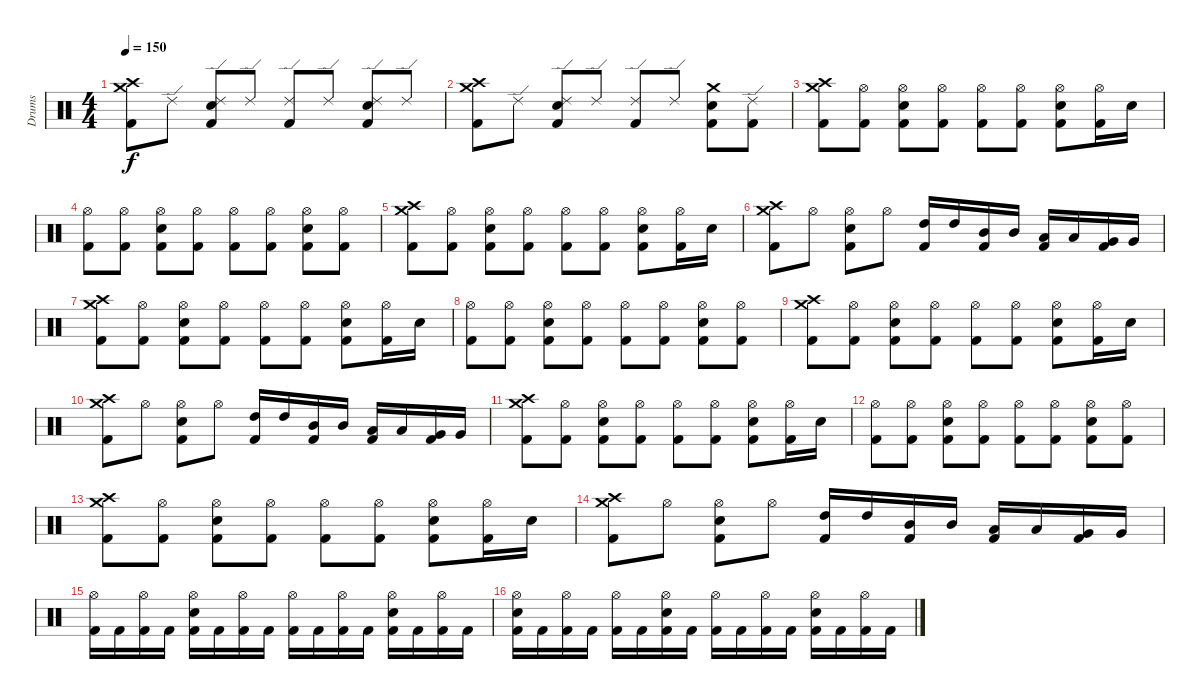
\track ("Drums" "Drums") {instrument percussion}
\staff {score}
\articulation defaults
\ts (4 4)
\tempo 150
\clef neutral
\ks c
("Crash medium (hit)" "Crash high (hit)" "Kick (hit) 2").8{dy f} "Ride (edge) 2".8 ("Ride (edge) 2" "Kick (hit) 2" "Snare (hit) 2").8 "Ride (edge) 2".8 ("Ride (edge) 2" "Kick (hit) 2").8 "Ride (edge) 2".8 ("Ride (edge) 2" "Kick (hit) 2" "Snare (hit) 2").8 "Ride (edge) 2".8 |
("Crash medium (hit)" "Crash high (hit)" "Kick (hit) 2").8 "Ride (edge) 2".8 ("Ride (edge) 2" "Kick (hit) 2" "Snare (hit) 2").8 "Ride (edge) 2".8 ("Ride (edge) 2" "Kick (hit) 2").8 "Ride (edge) 2".8 ("Crash medium (hit)" "Kick (hit) 2" "Snare (hit) 2").8 ("Ride (edge) 2" "Kick (hit) 2").8 |
("Crash medium (hit)" "Crash high (hit)" "Kick (hit) 2").8 ("Hi-Hat (open)" "Kick (hit) 2").8 ("Hi-Hat (open)" "Kick (hit) 2" "Snare (hit) 2").8 ("Hi-Hat (open)" "Kick (hit) 2").8 ("Hi-Hat (open)" "Kick (hit) 2").8 ("Hi-Hat (open)" "Kick (hit) 2").8 ("Hi-Hat (open)" "Kick (hit) 2" "Snare (hit) 2").8 ("Hi-Hat (open)" "Kick (hit) 2").16 "Snare (hit) 2".16 |
("Hi-Hat (open)" "Kick (hit) 2").8 ("Hi-Hat (open)" "Kick (hit) 2").8 ("Hi-Hat (open)" "Kick (hit) 2" "Snare (hit) 2").8 ("Hi-Hat (open)" "Kick (hit) 2").8 ("Hi-Hat (open)" "Kick (hit) 2").8 ("Hi-Hat (open)" "Kick (hit) 2").8 ("Hi-Hat (open)" "Kick (hit) 2" "Snare (hit) 2").8 ("Hi-Hat (open)" "Kick (hit) 2").8 |
("Crash medium (hit)" "Crash high (hit)" "Kick (hit) 2").8 ("Hi-Hat (open)" "Kick (hit) 2").8 ("Hi-Hat (open)" "Kick (hit) 2" "Snare (hit) 2").8 ("Hi-Hat (open)" "Kick (hit) 2").8 ("Hi-Hat (open)" "Kick (hit) 2").8 ("Hi-Hat (open)" "Kick (hit) 2").8 ("Hi-Hat (open)" "Kick (hit) 2" "Snare (hit) 2").8 ("Hi-Hat (open)" "Kick (hit) 2").16 "Snare (hit) 2".16 |
("Crash medium (hit)" "Crash high (hit)" "Kick (hit) 2").8 "Hi-Hat (open)".8 ("Hi-Hat (open)" "Kick (hit) 2" "Snare (hit) 2").8 "Hi-Hat (open)".8 ("High Tom (hit)" "Kick (hit) 2").16 "High Tom (hit)".16 ("Mid Tom (hit)" "Kick (hit) 2").16 "Mid Tom (hit)".16 ("Low Tom (hit)" "Kick (hit) 2").16 "Low Tom (hit)".16 ("Very Low Tom (hit)" "Kick (hit) 2").16 "Very Low Tom (hit)".16 |
("Crash medium (hit)" "Crash high (hit)" "Kick (hit) 2").8 ("Hi-Hat (open)" "Kick (hit) 2").8 ("Hi-Hat (open)" "Kick (hit) 2" "Snare (hit) 2").8 ("Hi-Hat (open)" "Kick (hit) 2").8 ("Hi-Hat (open)" "Kick (hit) 2").8 ("Hi-Hat (open)" "Kick (hit) 2").8 ("Hi-Hat (open)" "Kick (hit) 2" "Snare (hit) 2").8 ("Hi-Hat (open)" "Kick (hit) 2").16 "Snare (hit) 2".16 |
("Hi-Hat (open)" "Kick (hit) 2").8 ("Hi-Hat (open)" "Kick (hit) 2").8 ("Hi-Hat (open)" "Kick (hit) 2" "Snare (hit) 2").8 ("Hi-Hat (open)" "Kick (hit) 2").8 ("Hi-Hat (open)" "Kick (hit) 2").8 ("Hi-Hat (open)" "Kick (hit) 2").8 ("Hi-Hat (open)" "Kick (hit) 2" "Snare (hit) 2").8 ("Hi-Hat (open)" "Kick (hit) 2").8 |
("Crash medium (hit)" "Crash high (hit)" "Kick (hit) 2").8 ("Hi-Hat (open)" "Kick (hit) 2").8 ("Hi-Hat (open)" "Kick (hit) 2" "Snare (hit) 2").8 ("Hi-Hat (open)" "Kick (hit) 2").8 ("Hi-Hat (open)" "Kick (hit) 2").8 ("Hi-Hat (open)" "Kick (hit) 2").8 ("Hi-Hat (open)" "Kick (hit) 2" "Snare (hit) 2").8 ("Hi-Hat (open)" "Kick (hit) 2").16 "Snare (hit) 2".16 |
("Crash medium (hit)" "Crash high (hit)" "Kick (hit) 2").8 "Hi-Hat (open)".8 ("Hi-Hat (open)" "Kick (hit) 2" "Snare (hit) 2").8 "Hi-Hat (open)".8 ("High Tom (hit)" "Kick (hit) 2").16 "High Tom (hit)".16 ("Mid Tom (hit)" "Kick (hit) 2").16 "Mid Tom (hit)".16 ("Low Tom (hit)" "Kick (hit) 2").16 "Low Tom (hit)".16 ("Very Low Tom (hit)" "Kick (hit) 2").16 "Very Low Tom (hit)".16 |
("Crash medium (hit)" "Crash high (hit)" "Kick (hit) 2").8 ("Hi-Hat (open)" "Kick (hit) 2").8 ("Hi-Hat (open)" "Kick (hit) 2" "Snare (hit) 2").8 ("Hi-Hat (open)" "Kick (hit) 2").8 ("Hi-Hat (open)" "Kick (hit) 2").8 ("Hi-Hat (open)" "Kick (hit) 2").8 ("Hi-Hat (open)" "Kick (hit) 2" "Snare (hit) 2").8 ("Hi-Hat (open)" "Kick (hit) 2").16 "Snare (hit) 2".16 |
("Hi-Hat (open)" "Kick (hit) 2").8 ("Hi-Hat (open)" "Kick (hit) 2").8 ("Hi-Hat (open)" "Kick (hit) 2" "Snare (hit) 2").8 ("Hi-Hat (open)" "Kick (hit) 2").8 ("Hi-Hat (open)" "Kick (hit) 2").8 ("Hi-Hat (open)" "Kick (hit) 2").8 ("Hi-Hat (open)" "Kick (hit) 2" "Snare (hit) 2").8 ("Hi-Hat (open)" "Kick (hit) 2").8 |
("Crash medium (hit)" "Crash high (hit)" "Kick (hit) 2").8 ("Hi-Hat (open)" "Kick (hit) 2").8 ("Hi-Hat (open)" "Kick (hit) 2" "Snare (hit) 2").8 ("Hi-Hat (open)" "Kick (hit) 2").8 ("Hi-Hat (open)" "Kick (hit) 2").8 ("Hi-Hat (open)" "Kick (hit) 2").8 ("Hi-Hat (open)" "Kick (hit) 2" "Snare (hit) 2").8 ("Hi-Hat (open)" "Kick (hit) 2").16 "Snare (hit) 2".16 |
("Crash medium (hit)" "Crash high (hit)" "Kick (hit) 2").8 "Hi-Hat (open)".8 ("Hi-Hat (open)" "Kick (hit) 2" "Snare (hit) 2").8 "Hi-Hat (open)".8 ("High Tom (hit)" "Kick (hit) 2").16 "High Tom (hit)".16 ("Mid Tom (hit)" "Kick (hit) 2").16 "Mid Tom (hit)".16 ("Low Tom (hit)" "Kick (hit) 2").16 "Low Tom (hit)".16 ("Very Low Tom (hit)" "Kick (hit) 2").16 "Very Low Tom (hit)".16 |
("Hi-Hat (open)" "Kick (hit) 2").16 "Kick (hit) 2".16 ("Hi-Hat (open)" "Kick (hit) 2").16 "Kick (hit) 2".16 ("Hi-Hat (open)" "Kick (hit) 2" "Snare (hit) 2").16 "Kick (hit) 2".16 ("Hi-Hat (open)" "Kick (hit) 2").16 "Kick (hit) 2".16 ("Hi-Hat (open)" "Kick (hit) 2").16 "Kick (hit) 2".16 ("Hi-Hat (open)" "Kick (hit) 2").16 "Kick (hit) 2".16 ("Hi-Hat (open)" "Kick (hit) 2" "Snare (hit) 2").16 "Kick (hit) 2".16 ("Hi-Hat (open)" "Kick (hit) 2").16 "Kick (hit) 2".16 |
("Hi-Hat (open)" "Kick (hit) 2" "Snare (hit) 2").16 "Kick (hit) 2".16 ("Hi-Hat (open)" "Kick (hit) 2").16 "Kick (hit) 2".16 ("Hi-Hat (open)" "Kick (hit) 2").16 "Kick (hit) 2".16 ("Hi-Hat (open)" "Kick (hit) 2" "Snare (hit) 2").16 "Kick (hit) 2".16 ("Hi-Hat (open)" "Kick (hit) 2").16 "Kick (hit) 2".16 ("Hi-Hat (open)" "Kick (hit) 2").16 "Kick (hit) 2".16 ("Hi-Hat (open)" "Kick (hit) 2" "Snare (hit) 2").16 "Kick (hit) 2".16 ("Hi-Hat (open)" "Kick (hit) 2").16 "Kick (hit) 2".16
